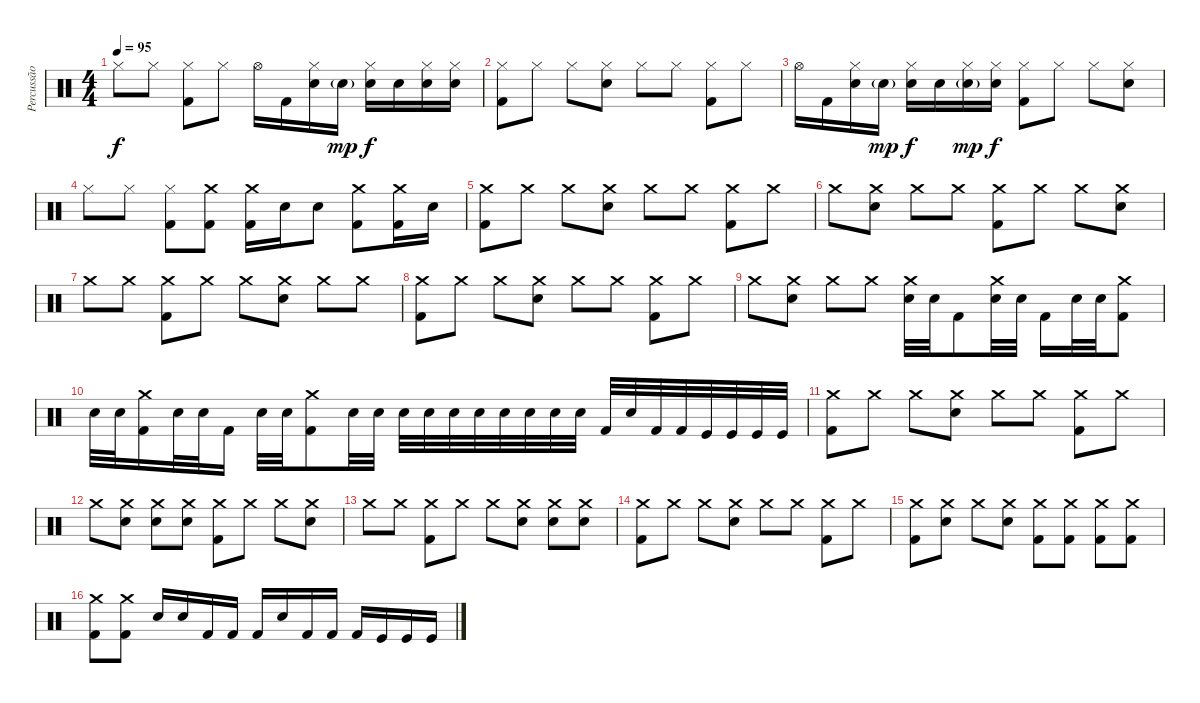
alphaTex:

\track ("Percussão" "Percussão") {instrument percussion}
\staff {score}
\articulation defaults
\ts (4 4)
\tempo 95
\clef neutral
\ks c "Hi-Hat (closed)".8{dy f} "Hi-Hat (closed)".8
("Kick (hit) 2" "Hi-Hat (closed)").8 "Hi-Hat (closed)".8 "Hi-Hat (open)".16 "Kick (hit) 2".16 ("Snare (hit) 2" "Hi-Hat (closed)").16 "Electric Snare (hit)"{g}.16{dy mp} ("Electric Snare (hit)" "Hi-Hat (closed)").16{dy f} "Snare (hit) 2".16 ("Electric Snare (hit)" "Hi-Hat (closed)").16 ("Snare (hit) 2" "Hi-Hat (closed)").16 |
("Kick (hit) 2" "Hi-Hat (closed)").8 "Hi-Hat (closed)".8 "Hi-Hat (closed)".8 ("Snare (hit) 2" "Hi-Hat (closed)").8 "Hi-Hat (closed)".8 "Hi-Hat (closed)".8 ("Kick (hit) 2" "Hi-Hat (closed)").8 "Hi-Hat (closed)".8 |
"Hi-Hat (open)".16 "Kick (hit) 2".16 ("Snare (hit) 2" "Hi-Hat (closed)").16 "Electric Snare (hit)"{g}.16{dy mp} ("Electric Snare (hit)" "Hi-Hat (closed)").16{dy f} "Snare (hit) 2".16 ("Electric Snare (hit)"{g} "Hi-Hat (closed)").16{dy mp} ("Snare (hit) 2" "Hi-Hat (closed)").16{dy f} ("Kick (hit) 2" "Hi-Hat (closed)").8 "Hi-Hat (closed)".8 "Hi-Hat (closed)".8 ("Snare (hit) 2" "Hi-Hat (closed)").8 |
"Hi-Hat (closed)".8 "Hi-Hat (closed)".8 ("Kick (hit) 2" "Hi-Hat (closed)").8 ("Kick (hit) 2" "Crash medium (hit)").8 ("Kick (hit) 2" "Crash medium (hit)").16 "Snare (hit) 2".16 "Electric Snare (hit)".8 ("Kick (hit) 2" "Crash medium (hit)").8 ("Kick (hit) 2" "Crash medium (hit)").16 "Snare (hit) 2".16 |
("Kick (hit) 2" "Crash medium (hit)").8 "Crash medium (hit)".8 "Crash medium (hit)".8 ("Snare (hit) 2" "Crash medium (hit)").8 "Crash medium (hit)".8 "Crash medium (hit)".8 ("Kick (hit) 2" "Crash medium (hit)").8 "Crash medium (hit)".8 |
"Crash medium (hit)".8 ("Snare (hit) 2" "Crash medium (hit)").8 "Crash medium (hit)".8 "Crash medium (hit)".8 ("Kick (hit) 2" "Crash medium (hit)").8 "Crash medium (hit)".8 "Crash medium (hit)".8 ("Snare (hit) 2" "Crash medium (hit)").8 |
"Crash medium (hit)".8 "Crash medium (hit)".8 ("Kick (hit) 2" "Crash medium (hit)").8 "Crash medium (hit)".8 "Crash medium (hit)".8 ("Snare (hit) 2" "Crash medium (hit)").8 "Crash medium (hit)".8 "Crash medium (hit)".8 |
("Kick (hit) 2" "Crash medium (hit)").8 "Crash medium (hit)".8 "Crash medium (hit)".8 ("Snare (hit) 2" "Crash medium (hit)").8 "Crash medium (hit)".8 "Crash medium (hit)".8 ("Kick (hit) 2" "Crash medium (hit)").8 "Crash medium (hit)".8 |
"Crash medium (hit)".8 ("Snare (hit) 2" "Crash medium (hit)").8 "Crash medium (hit)".8 "Crash medium (hit)".8 ("Snare (hit) 2" "Crash medium (hit)").32 "Snare (hit) 2".32 "Kick (hit) 2".8 ("Snare (hit) 2" "Crash medium (hit)").32 "Snare (hit) 2".32 "Kick (hit) 2".16 "Snare (hit) 2".32 "Snare (hit) 2".32 ("Kick (hit) 2" "Crash medium (hit)").8 |
"Snare (hit) 2".32 "Snare (hit) 2".32 ("Kick (hit) 2" "Crash medium (hit)").16 "Snare (hit) 2".32 "Snare (hit) 2".32 "Kick (hit) 2".16 "Snare (hit) 2".32 "Snare (hit) 2".32 ("Kick (hit) 2" "Crash medium (hit)").8 "Snare (hit) 2".32 "Snare (hit) 2".32 "Snare (hit) 2".32 "Snare (hit) 2".32 "Electric Snare (hit)".32 "Electric Snare (hit)".32 "Electric Snare (hit)".32 "Electric Snare (hit)".32 "Snare (hit) 2".32 "Snare (hit) 2".32 "Kick (hit) 2".32 "Snare (hit) 2".32 "Kick (hit) 2".32 "Kick (hit) 2".32 "Kick (hit)".32 "Kick (hit)".32 "Kick (hit)".32 "Kick (hit)".32 |
("Kick (hit) 2" "Crash medium (hit)").8 "Crash medium (hit)".8 "Crash medium (hit)".8 ("Electric Snare (hit)" "Crash medium (hit)").8 "Crash medium (hit)".8 "Crash medium (hit)".8 ("Kick (hit) 2" "Crash medium (hit)").8 "Crash medium (hit)".8 |
"Crash medium (hit)".8 ("Electric Snare (hit)" "Crash medium (hit)").8 ("Electric Snare (hit)" "Crash medium (hit)").8 ("Electric Snare (hit)" "Crash medium (hit)").8 ("Kick (hit) 2" "Crash medium (hit)").8 "Crash medium (hit)".8 "Crash medium (hit)".8 ("Electric Snare (hit)" "Crash medium (hit)").8 |
"Crash medium (hit)".8 "Crash medium (hit)".8 ("Kick (hit) 2" "Crash medium (hit)").8 "Crash medium (hit)".8 "Crash medium (hit)".8 ("Electric Snare (hit)" "Crash medium (hit)").8 ("Electric Snare (hit)" "Crash medium (hit)").8 ("Electric Snare (hit)" "Crash medium (hit)").8 |
("Kick (hit) 2" "Crash medium (hit)").8 "Crash medium (hit)".8 "Crash medium (hit)".8 ("Electric Snare (hit)" "Crash medium (hit)").8 "Crash medium (hit)".8 "Crash medium (hit)".8 ("Kick (hit) 2" "Crash medium (hit)").8 "Crash medium (hit)".8 |
("Kick (hit) 2" "Crash medium (hit)").8 ("Electric Snare (hit)" "Crash medium (hit)").8 "Crash medium (hit)".8 ("Electric Snare (hit)" "Crash medium (hit)").8 ("Kick (hit) 2" "Crash medium (hit)").8 ("Kick (hit) 2" "Crash medium (hit)").8 ("Kick (hit) 2" "Crash medium (hit)").8 ("Kick (hit) 2" "Crash medium (hit)").8 |
("Kick (hit) 2" "Crash medium (hit)").8 ("Kick (hit) 2" "Crash medium (hit)").8 "Electric Snare (hit)".16 "Electric Snare (hit)".16 "Kick (hit) 2".16 "Kick (hit) 2".16 "Kick (hit) 2".16 "Electric Snare (hit)".16 "Kick (hit) 2".16 "Kick (hit) 2".16 "Kick (hit) 2".16 "Kick (hit)".16 "Kick (hit)".16 "Kick (hit)".16
